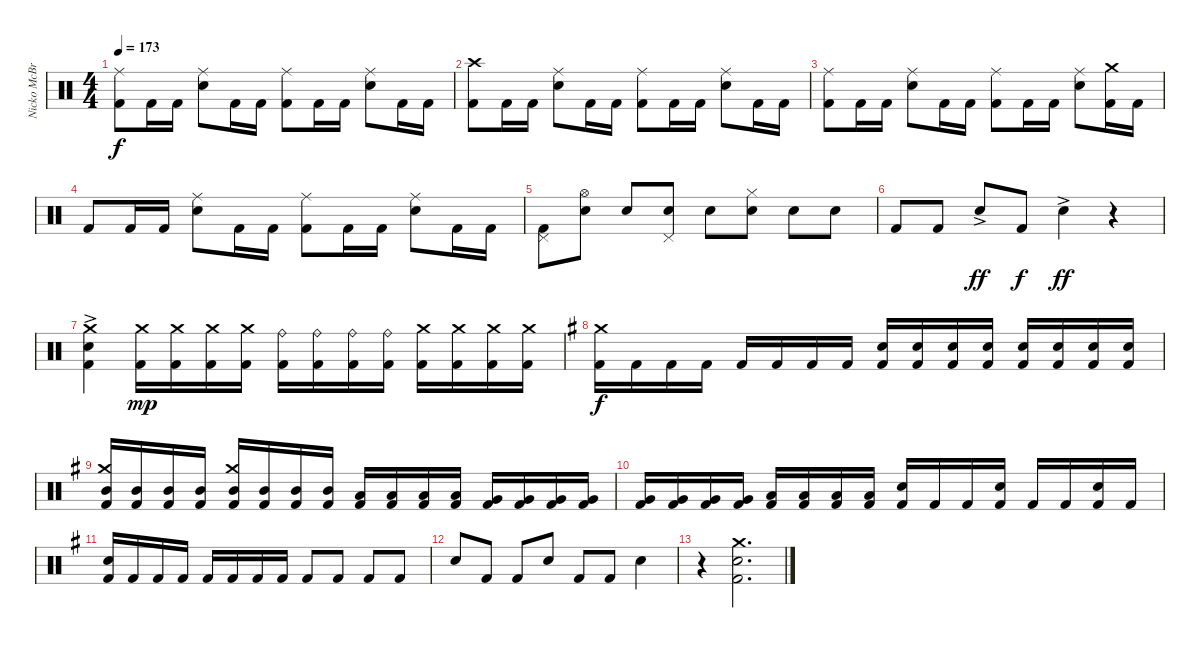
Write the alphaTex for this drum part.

\track ("Nicko McBrain" "Nicko McBr") {instrument percussion}
\staff {score}
\articulation defaults
\ts (4 4)
\tempo 173
\clef neutral
\ks c
("Ride (middle)" "Kick (hit) 2").8{dy f} "Kick (hit) 2".16 "Kick (hit) 2".16 ("Ride (middle)" "Electric Snare (hit)").8 "Kick (hit) 2".16 "Kick (hit) 2".16 ("Ride (middle)" "Kick (hit) 2").8 "Kick (hit) 2".16 "Kick (hit) 2".16 ("Ride (middle)" "Electric Snare (hit)").8 "Kick (hit) 2".16 "Kick (hit) 2".16 |
("Crash high (hit)" "Kick (hit) 2").8 "Kick (hit) 2".16 "Kick (hit) 2".16 ("Ride (middle)" "Electric Snare (hit)").8 "Kick (hit) 2".16 "Kick (hit) 2".16 ("Ride (middle)" "Kick (hit) 2").8 "Kick (hit) 2".16 "Kick (hit) 2".16 ("Ride (middle)" "Electric Snare (hit)").8 "Kick (hit) 2".16 "Kick (hit) 2".16 |
("Ride (middle)" "Kick (hit) 2").8 "Kick (hit) 2".16 "Kick (hit) 2".16 ("Ride (middle)" "Electric Snare (hit)").8 "Kick (hit) 2".16 "Kick (hit) 2".16 ("Ride (middle)" "Kick (hit) 2").8 "Kick (hit) 2".16 "Kick (hit) 2".16 ("Ride (middle)" "Electric Snare (hit)").8 ("Crash medium (hit)" "Kick (hit) 2").16 "Kick (hit) 2".16 |
"Kick (hit) 2".8 "Kick (hit) 2".16 "Kick (hit) 2".16 ("Ride (middle)" "Electric Snare (hit)").8 "Kick (hit) 2".16 "Kick (hit) 2".16 ("Ride (middle)" "Kick (hit) 2").8 "Kick (hit) 2".16 "Kick (hit) 2".16 ("Ride (middle)" "Electric Snare (hit)").8 "Kick (hit) 2".16 "Kick (hit) 2".16 |
("Pedal Hi-Hat (hit)" "Kick (hit) 2").8 ("Hi-Hat (open)" "Electric Snare (hit)").8 "Electric Snare (hit)".8 ("Pedal Hi-Hat (hit)" "Electric Snare (hit)").8 "Electric Snare (hit)".8 ("Hi-Hat (closed)" "Electric Snare (hit)").8 "Electric Snare (hit)".8 "Electric Snare (hit)".8 |
"Kick (hit) 2".8 "Kick (hit) 2".8 "Electric Snare (hit)"{ac}.8{dy ff} "Kick (hit) 2".8{dy f} "Electric Snare (hit)"{ac}.4{dy ff} r.4 |
("Crash medium (hit)"{ac} "Electric Snare (hit)"{ac} "Kick (hit) 2"{ac}).4 ("Crash medium (hit)" "Kick (hit) 2").16{dy mp} ("Crash medium (hit)" "Kick (hit) 2").16 ("Crash medium (hit)" "Kick (hit) 2").16 ("Crash medium (hit)" "Kick (hit) 2").16 ("Ride (bell)" "Kick (hit) 2").16 ("Ride (bell)" "Kick (hit) 2").16 ("Ride (bell)" "Kick (hit) 2").16 ("Ride (bell)" "Kick (hit) 2").16 ("Crash medium (hit)" "Kick (hit) 2").16 ("Crash medium (hit)" "Kick (hit) 2").16 ("Crash medium (hit)" "Kick (hit) 2").16 ("Crash medium (hit)" "Kick (hit) 2").16 |
\ks g
("Crash medium (hit)" "Kick (hit) 2").16{dy f} "Kick (hit) 2".16 "Kick (hit) 2".16 "Kick (hit) 2".16 "Kick (hit) 2".16 "Kick (hit) 2".16 "Kick (hit) 2".16 "Kick (hit) 2".16 ("Electric Snare (hit)" "Kick (hit) 2").16 ("Electric Snare (hit)" "Kick (hit) 2").16 ("Electric Snare (hit)" "Kick (hit) 2").16 ("Electric Snare (hit)" "Kick (hit) 2").16 ("Electric Snare (hit)" "Kick (hit) 2").16 ("Electric Snare (hit)" "Kick (hit) 2").16 ("Electric Snare (hit)" "Kick (hit) 2").16 ("Electric Snare (hit)" "Kick (hit) 2").16 |
("Crash medium (hit)" "Mid Tom (hit)" "Kick (hit) 2").16 ("Mid Tom (hit)" "Kick (hit) 2").16 ("Mid Tom (hit)" "Kick (hit) 2").16 ("Mid Tom (hit)" "Kick (hit) 2").16 ("Crash medium (hit)" "Mid Tom (hit)" "Kick (hit) 2").16 ("Mid Tom (hit)" "Kick (hit) 2").16 ("Mid Tom (hit)" "Kick (hit) 2").16 ("Mid Tom (hit)" "Kick (hit) 2").16 ("Low Tom (hit)" "Kick (hit) 2").16 ("Low Tom (hit)" "Kick (hit) 2").16 ("Low Tom (hit)" "Kick (hit) 2").16 ("Low Tom (hit)" "Kick (hit) 2").16 ("Very Low Tom (hit)" "Kick (hit) 2").16 ("Very Low Tom (hit)" "Kick (hit) 2").16 ("Very Low Tom (hit)" "Kick (hit) 2").16 ("Very Low Tom (hit)" "Kick (hit) 2").16 |
("Very Low Tom (hit)" "Kick (hit) 2").16 ("Very Low Tom (hit)" "Kick (hit) 2").16 ("Very Low Tom (hit)" "Kick (hit) 2").16 ("Very Low Tom (hit)" "Kick (hit) 2").16 ("Low Floor Tom (hit)" "Kick (hit) 2").16 ("Low Floor Tom (hit)" "Kick (hit) 2").16 ("Low Floor Tom (hit)" "Kick (hit) 2").16 ("Low Floor Tom (hit)" "Kick (hit) 2").16 ("Electric Snare (hit)" "Kick (hit) 2").16 "Kick (hit) 2".16 "Kick (hit) 2".16 ("Electric Snare (hit)" "Kick (hit) 2").16 "Kick (hit) 2".16 "Kick (hit) 2".16 ("Electric Snare (hit)" "Kick (hit) 2").16 "Kick (hit) 2".16 |
("Electric Snare (hit)" "Kick (hit) 2").16 "Kick (hit) 2".16 "Kick (hit) 2".16 "Kick (hit) 2".16 "Kick (hit) 2".16 "Kick (hit) 2".16 "Kick (hit) 2".16 "Kick (hit) 2".16 "Kick (hit) 2".8 "Kick (hit) 2".8 "Kick (hit) 2".8 "Kick (hit) 2".8 |
"Electric Snare (hit)".8 "Kick (hit) 2".8 "Kick (hit) 2".8 "Electric Snare (hit)".8 "Kick (hit) 2".8 "Kick (hit) 2".8 "Electric Snare (hit)".4 |
r.4 ("Crash medium (hit)" "Electric Snare (hit)" "Kick (hit) 2").2{d}
